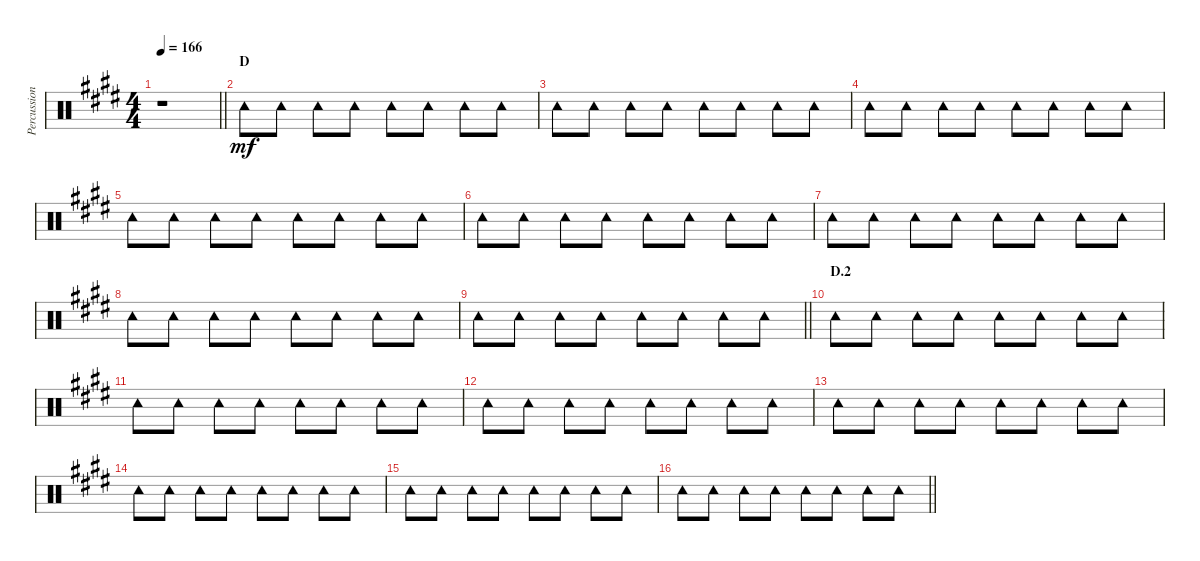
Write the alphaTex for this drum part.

\track ("Percussion" "Percussion") {instrument percussion}
\staff {score}
\articulation defaults
\ts (4 4)
\tempo 166
\clef neutral
\barLineRight lightlight
\ks e
r.1{dy mf} |
\section ("" "D")
"Tambourine (hit)".8 "Tambourine (hit)".8 "Tambourine (hit)".8 "Tambourine (hit)".8 "Tambourine (hit)".8 "Tambourine (hit)".8 "Tambourine (hit)".8 "Tambourine (hit)".8 |
"Tambourine (hit)".8 "Tambourine (hit)".8 "Tambourine (hit)".8 "Tambourine (hit)".8 "Tambourine (hit)".8 "Tambourine (hit)".8 "Tambourine (hit)".8 "Tambourine (hit)".8 |
"Tambourine (hit)".8 "Tambourine (hit)".8 "Tambourine (hit)".8 "Tambourine (hit)".8 "Tambourine (hit)".8 "Tambourine (hit)".8 "Tambourine (hit)".8 "Tambourine (hit)".8 |
"Tambourine (hit)".8 "Tambourine (hit)".8 "Tambourine (hit)".8 "Tambourine (hit)".8 "Tambourine (hit)".8 "Tambourine (hit)".8 "Tambourine (hit)".8 "Tambourine (hit)".8 |
"Tambourine (hit)".8 "Tambourine (hit)".8 "Tambourine (hit)".8 "Tambourine (hit)".8 "Tambourine (hit)".8 "Tambourine (hit)".8 "Tambourine (hit)".8 "Tambourine (hit)".8 |
"Tambourine (hit)".8 "Tambourine (hit)".8 "Tambourine (hit)".8 "Tambourine (hit)".8 "Tambourine (hit)".8 "Tambourine (hit)".8 "Tambourine (hit)".8 "Tambourine (hit)".8 |
"Tambourine (hit)".8 "Tambourine (hit)".8 "Tambourine (hit)".8 "Tambourine (hit)".8 "Tambourine (hit)".8 "Tambourine (hit)".8 "Tambourine (hit)".8 "Tambourine (hit)".8 |
\barLineRight lightlight "Tambourine (hit)".8 "Tambourine (hit)".8 "Tambourine (hit)".8 "Tambourine (hit)".8 "Tambourine (hit)".8 "Tambourine (hit)".8 "Tambourine (hit)".8 "Tambourine (hit)".8
|
\section ("" "D.2")
"Tambourine (hit)".8 "Tambourine (hit)".8 "Tambourine (hit)".8 "Tambourine (hit)".8 "Tambourine (hit)".8 "Tambourine (hit)".8 "Tambourine (hit)".8 "Tambourine (hit)".8 |
"Tambourine (hit)".8 "Tambourine (hit)".8 "Tambourine (hit)".8 "Tambourine (hit)".8 "Tambourine (hit)".8 "Tambourine (hit)".8 "Tambourine (hit)".8 "Tambourine (hit)".8 |
"Tambourine (hit)".8 "Tambourine (hit)".8 "Tambourine (hit)".8 "Tambourine (hit)".8 "Tambourine (hit)".8 "Tambourine (hit)".8 "Tambourine (hit)".8 "Tambourine (hit)".8 |
"Tambourine (hit)".8 "Tambourine (hit)".8 "Tambourine (hit)".8 "Tambourine (hit)".8 "Tambourine (hit)".8 "Tambourine (hit)".8 "Tambourine (hit)".8 "Tambourine (hit)".8 |
"Tambourine (hit)".8 "Tambourine (hit)".8 "Tambourine (hit)".8 "Tambourine (hit)".8 "Tambourine (hit)".8 "Tambourine (hit)".8 "Tambourine (hit)".8 "Tambourine (hit)".8 |
"Tambourine (hit)".8 "Tambourine (hit)".8 "Tambourine (hit)".8 "Tambourine (hit)".8 "Tambourine (hit)".8 "Tambourine (hit)".8 "Tambourine (hit)".8 "Tambourine (hit)".8 |
\barLineRight lightlight "Tambourine (hit)".8 "Tambourine (hit)".8 "Tambourine (hit)".8 "Tambourine (hit)".8 "Tambourine (hit)".8 "Tambourine (hit)".8 "Tambourine (hit)".8 "Tambourine (hit)".8
